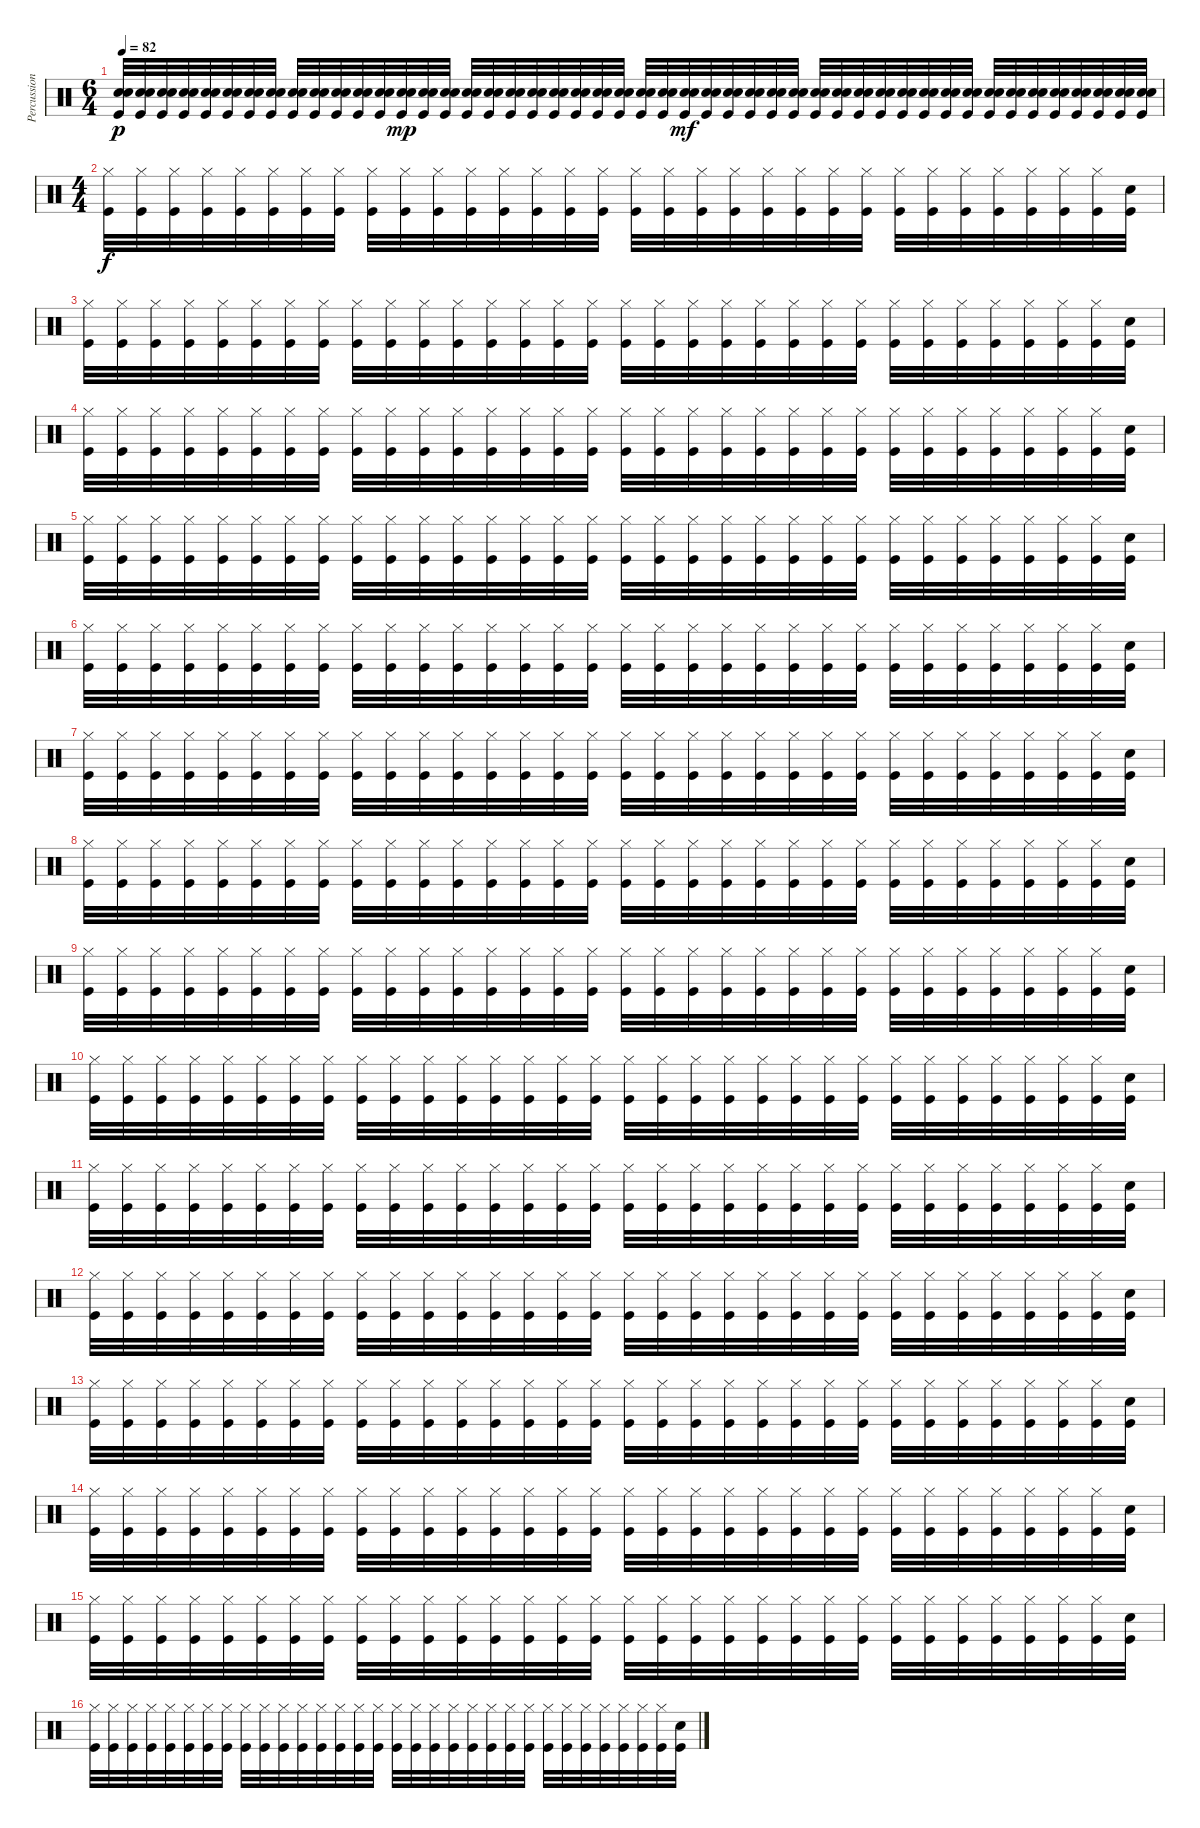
\track ("Percussion" "Percussion") {instrument percussion}
\staff {score}
\articulation defaults
\ts (6 4)
\tempo 82
\clef neutral
\ks c
("Electric Snare (hit)" "Snare (hit) 2" "Kick (hit)").32{dy p} ("Electric Snare (hit)" "Snare (hit) 2" "Kick (hit)").32 ("Electric Snare (hit)" "Snare (hit) 2" "Kick (hit)").32 ("Electric Snare (hit)" "Snare (hit) 2" "Kick (hit)").32 ("Electric Snare (hit)" "Snare (hit) 2" "Kick (hit)").32 ("Electric Snare (hit)" "Snare (hit) 2" "Kick (hit)").32 ("Electric Snare (hit)" "Snare (hit) 2" "Kick (hit)").32 ("Electric Snare (hit)" "Snare (hit) 2" "Kick (hit)").32 ("Electric Snare (hit)" "Snare (hit) 2" "Kick (hit)").32 ("Electric Snare (hit)" "Snare (hit) 2" "Kick (hit)").32 ("Electric Snare (hit)" "Snare (hit) 2" "Kick (hit)").32 ("Electric Snare (hit)" "Snare (hit) 2" "Kick (hit)").32 ("Electric Snare (hit)" "Snare (hit) 2" "Kick (hit)").32 ("Electric Snare (hit)" "Snare (hit) 2" "Kick (hit)").32{dy mp} ("Electric Snare (hit)" "Snare (hit) 2" "Kick (hit)").32 ("Electric Snare (hit)" "Snare (hit) 2" "Kick (hit)").32 ("Electric Snare (hit)" "Snare (hit) 2" "Kick (hit)").32 ("Electric Snare (hit)" "Snare (hit) 2" "Kick (hit)").32 ("Electric Snare (hit)" "Snare (hit) 2" "Kick (hit)").32 ("Electric Snare (hit)" "Snare (hit) 2" "Kick (hit)").32 ("Electric Snare (hit)" "Snare (hit) 2" "Kick (hit)").32 ("Electric Snare (hit)" "Snare (hit) 2" "Kick (hit)").32 ("Electric Snare (hit)" "Snare (hit) 2" "Kick (hit)").32 ("Electric Snare (hit)" "Snare (hit) 2" "Kick (hit)").32 ("Electric Snare (hit)" "Snare (hit) 2" "Kick (hit)").32 ("Electric Snare (hit)" "Snare (hit) 2" "Kick (hit)").32 ("Electric Snare (hit)" "Snare (hit) 2" "Kick (hit)").32{dy mf} ("Electric Snare (hit)" "Snare (hit) 2" "Kick (hit)").32 ("Electric Snare (hit)" "Snare (hit) 2" "Kick (hit)").32 ("Electric Snare (hit)" "Snare (hit) 2" "Kick (hit)").32 ("Electric Snare (hit)" "Snare (hit) 2" "Kick (hit)").32 ("Electric Snare (hit)" "Snare (hit) 2" "Kick (hit)").32 ("Electric Snare (hit)" "Snare (hit) 2" "Kick (hit)").32 ("Electric Snare (hit)" "Snare (hit) 2" "Kick (hit)").32 ("Electric Snare (hit)" "Snare (hit) 2" "Kick (hit)").32 ("Electric Snare (hit)" "Snare (hit) 2" "Kick (hit)").32 ("Electric Snare (hit)" "Snare (hit) 2" "Kick (hit)").32 ("Electric Snare (hit)" "Snare (hit) 2" "Kick (hit)").32 ("Electric Snare (hit)" "Snare (hit) 2" "Kick (hit)").32 ("Electric Snare (hit)" "Snare (hit) 2" "Kick (hit)").32 ("Electric Snare (hit)" "Snare (hit) 2" "Kick (hit)").32 ("Electric Snare (hit)" "Snare (hit) 2" "Kick (hit)").32 ("Electric Snare (hit)" "Snare (hit) 2" "Kick (hit)").32 ("Electric Snare (hit)" "Snare (hit) 2" "Kick (hit)").32 ("Electric Snare (hit)" "Snare (hit) 2" "Kick (hit)").32 ("Electric Snare (hit)" "Snare (hit) 2" "Kick (hit)").32 ("Electric Snare (hit)" "Snare (hit) 2" "Kick (hit)").32 ("Electric Snare (hit)" "Snare (hit) 2" "Kick (hit)").32 |
\ts (4 4)
("Hi-Hat (closed)" "Kick (hit)").32{dy f} ("Hi-Hat (closed)" "Kick (hit)").32 ("Hi-Hat (closed)" "Kick (hit)").32 ("Hi-Hat (closed)" "Kick (hit)").32 ("Hi-Hat (closed)" "Kick (hit)").32 ("Hi-Hat (closed)" "Kick (hit)").32 ("Hi-Hat (closed)" "Kick (hit)").32 ("Hi-Hat (closed)" "Kick (hit)").32 ("Hi-Hat (closed)" "Kick (hit)").32 ("Hi-Hat (closed)" "Kick (hit)").32 ("Hi-Hat (closed)" "Kick (hit)").32 ("Hi-Hat (closed)" "Kick (hit)").32 ("Hi-Hat (closed)" "Kick (hit)").32 ("Hi-Hat (closed)" "Kick (hit)").32 ("Hi-Hat (closed)" "Kick (hit)").32 ("Hi-Hat (closed)" "Kick (hit)").32 ("Hi-Hat (closed)" "Kick (hit)").32 ("Hi-Hat (closed)" "Kick (hit)").32 ("Hi-Hat (closed)" "Kick (hit)").32 ("Hi-Hat (closed)" "Kick (hit)").32 ("Hi-Hat (closed)" "Kick (hit)").32 ("Hi-Hat (closed)" "Kick (hit)").32 ("Hi-Hat (closed)" "Kick (hit)").32 ("Hi-Hat (closed)" "Kick (hit)").32 ("Hi-Hat (closed)" "Kick (hit)").32 ("Hi-Hat (closed)" "Kick (hit)").32 ("Hi-Hat (closed)" "Kick (hit)").32 ("Hi-Hat (closed)" "Kick (hit)").32 ("Hi-Hat (closed)" "Kick (hit)").32 ("Hi-Hat (closed)" "Kick (hit)").32 ("Hi-Hat (closed)" "Kick (hit)").32 ("Snare (hit)" "Kick (hit)").32 |
("Hi-Hat (closed)" "Kick (hit)").32 ("Hi-Hat (closed)" "Kick (hit)").32 ("Hi-Hat (closed)" "Kick (hit)").32 ("Hi-Hat (closed)" "Kick (hit)").32 ("Hi-Hat (closed)" "Kick (hit)").32 ("Hi-Hat (closed)" "Kick (hit)").32 ("Hi-Hat (closed)" "Kick (hit)").32 ("Hi-Hat (closed)" "Kick (hit)").32 ("Hi-Hat (closed)" "Kick (hit)").32 ("Hi-Hat (closed)" "Kick (hit)").32 ("Hi-Hat (closed)" "Kick (hit)").32 ("Hi-Hat (closed)" "Kick (hit)").32 ("Hi-Hat (closed)" "Kick (hit)").32 ("Hi-Hat (closed)" "Kick (hit)").32 ("Hi-Hat (closed)" "Kick (hit)").32 ("Hi-Hat (closed)" "Kick (hit)").32 ("Hi-Hat (closed)" "Kick (hit)").32 ("Hi-Hat (closed)" "Kick (hit)").32 ("Hi-Hat (closed)" "Kick (hit)").32 ("Hi-Hat (closed)" "Kick (hit)").32 ("Hi-Hat (closed)" "Kick (hit)").32 ("Hi-Hat (closed)" "Kick (hit)").32 ("Hi-Hat (closed)" "Kick (hit)").32 ("Hi-Hat (closed)" "Kick (hit)").32 ("Hi-Hat (closed)" "Kick (hit)").32 ("Hi-Hat (closed)" "Kick (hit)").32 ("Hi-Hat (closed)" "Kick (hit)").32 ("Hi-Hat (closed)" "Kick (hit)").32 ("Hi-Hat (closed)" "Kick (hit)").32 ("Hi-Hat (closed)" "Kick (hit)").32 ("Hi-Hat (closed)" "Kick (hit)").32 ("Snare (hit)" "Kick (hit)").32 |
("Hi-Hat (closed)" "Kick (hit)").32 ("Hi-Hat (closed)" "Kick (hit)").32 ("Hi-Hat (closed)" "Kick (hit)").32 ("Hi-Hat (closed)" "Kick (hit)").32 ("Hi-Hat (closed)" "Kick (hit)").32 ("Hi-Hat (closed)" "Kick (hit)").32 ("Hi-Hat (closed)" "Kick (hit)").32 ("Hi-Hat (closed)" "Kick (hit)").32 ("Hi-Hat (closed)" "Kick (hit)").32 ("Hi-Hat (closed)" "Kick (hit)").32 ("Hi-Hat (closed)" "Kick (hit)").32 ("Hi-Hat (closed)" "Kick (hit)").32 ("Hi-Hat (closed)" "Kick (hit)").32 ("Hi-Hat (closed)" "Kick (hit)").32 ("Hi-Hat (closed)" "Kick (hit)").32 ("Hi-Hat (closed)" "Kick (hit)").32 ("Hi-Hat (closed)" "Kick (hit)").32 ("Hi-Hat (closed)" "Kick (hit)").32 ("Hi-Hat (closed)" "Kick (hit)").32 ("Hi-Hat (closed)" "Kick (hit)").32 ("Hi-Hat (closed)" "Kick (hit)").32 ("Hi-Hat (closed)" "Kick (hit)").32 ("Hi-Hat (closed)" "Kick (hit)").32 ("Hi-Hat (closed)" "Kick (hit)").32 ("Hi-Hat (closed)" "Kick (hit)").32 ("Hi-Hat (closed)" "Kick (hit)").32 ("Hi-Hat (closed)" "Kick (hit)").32 ("Hi-Hat (closed)" "Kick (hit)").32 ("Hi-Hat (closed)" "Kick (hit)").32 ("Hi-Hat (closed)" "Kick (hit)").32 ("Hi-Hat (closed)" "Kick (hit)").32 ("Snare (hit)" "Kick (hit)").32 |
("Hi-Hat (closed)" "Kick (hit)").32 ("Hi-Hat (closed)" "Kick (hit)").32 ("Hi-Hat (closed)" "Kick (hit)").32 ("Hi-Hat (closed)" "Kick (hit)").32 ("Hi-Hat (closed)" "Kick (hit)").32 ("Hi-Hat (closed)" "Kick (hit)").32 ("Hi-Hat (closed)" "Kick (hit)").32 ("Hi-Hat (closed)" "Kick (hit)").32 ("Hi-Hat (closed)" "Kick (hit)").32 ("Hi-Hat (closed)" "Kick (hit)").32 ("Hi-Hat (closed)" "Kick (hit)").32 ("Hi-Hat (closed)" "Kick (hit)").32 ("Hi-Hat (closed)" "Kick (hit)").32 ("Hi-Hat (closed)" "Kick (hit)").32 ("Hi-Hat (closed)" "Kick (hit)").32 ("Hi-Hat (closed)" "Kick (hit)").32 ("Hi-Hat (closed)" "Kick (hit)").32 ("Hi-Hat (closed)" "Kick (hit)").32 ("Hi-Hat (closed)" "Kick (hit)").32 ("Hi-Hat (closed)" "Kick (hit)").32 ("Hi-Hat (closed)" "Kick (hit)").32 ("Hi-Hat (closed)" "Kick (hit)").32 ("Hi-Hat (closed)" "Kick (hit)").32 ("Hi-Hat (closed)" "Kick (hit)").32 ("Hi-Hat (closed)" "Kick (hit)").32 ("Hi-Hat (closed)" "Kick (hit)").32 ("Hi-Hat (closed)" "Kick (hit)").32 ("Hi-Hat (closed)" "Kick (hit)").32 ("Hi-Hat (closed)" "Kick (hit)").32 ("Hi-Hat (closed)" "Kick (hit)").32 ("Hi-Hat (closed)" "Kick (hit)").32 ("Snare (hit)" "Kick (hit)").32 |
("Hi-Hat (closed)" "Kick (hit)").32 ("Hi-Hat (closed)" "Kick (hit)").32 ("Hi-Hat (closed)" "Kick (hit)").32 ("Hi-Hat (closed)" "Kick (hit)").32 ("Hi-Hat (closed)" "Kick (hit)").32 ("Hi-Hat (closed)" "Kick (hit)").32 ("Hi-Hat (closed)" "Kick (hit)").32 ("Hi-Hat (closed)" "Kick (hit)").32 ("Hi-Hat (closed)" "Kick (hit)").32 ("Hi-Hat (closed)" "Kick (hit)").32 ("Hi-Hat (closed)" "Kick (hit)").32 ("Hi-Hat (closed)" "Kick (hit)").32 ("Hi-Hat (closed)" "Kick (hit)").32 ("Hi-Hat (closed)" "Kick (hit)").32 ("Hi-Hat (closed)" "Kick (hit)").32 ("Hi-Hat (closed)" "Kick (hit)").32 ("Hi-Hat (closed)" "Kick (hit)").32 ("Hi-Hat (closed)" "Kick (hit)").32 ("Hi-Hat (closed)" "Kick (hit)").32 ("Hi-Hat (closed)" "Kick (hit)").32 ("Hi-Hat (closed)" "Kick (hit)").32 ("Hi-Hat (closed)" "Kick (hit)").32 ("Hi-Hat (closed)" "Kick (hit)").32 ("Hi-Hat (closed)" "Kick (hit)").32 ("Hi-Hat (closed)" "Kick (hit)").32 ("Hi-Hat (closed)" "Kick (hit)").32 ("Hi-Hat (closed)" "Kick (hit)").32 ("Hi-Hat (closed)" "Kick (hit)").32 ("Hi-Hat (closed)" "Kick (hit)").32 ("Hi-Hat (closed)" "Kick (hit)").32 ("Hi-Hat (closed)" "Kick (hit)").32 ("Snare (hit)" "Kick (hit)").32 |
("Hi-Hat (closed)" "Kick (hit)").32 ("Hi-Hat (closed)" "Kick (hit)").32 ("Hi-Hat (closed)" "Kick (hit)").32 ("Hi-Hat (closed)" "Kick (hit)").32 ("Hi-Hat (closed)" "Kick (hit)").32 ("Hi-Hat (closed)" "Kick (hit)").32 ("Hi-Hat (closed)" "Kick (hit)").32 ("Hi-Hat (closed)" "Kick (hit)").32 ("Hi-Hat (closed)" "Kick (hit)").32 ("Hi-Hat (closed)" "Kick (hit)").32 ("Hi-Hat (closed)" "Kick (hit)").32 ("Hi-Hat (closed)" "Kick (hit)").32 ("Hi-Hat (closed)" "Kick (hit)").32 ("Hi-Hat (closed)" "Kick (hit)").32 ("Hi-Hat (closed)" "Kick (hit)").32 ("Hi-Hat (closed)" "Kick (hit)").32 ("Hi-Hat (closed)" "Kick (hit)").32 ("Hi-Hat (closed)" "Kick (hit)").32 ("Hi-Hat (closed)" "Kick (hit)").32 ("Hi-Hat (closed)" "Kick (hit)").32 ("Hi-Hat (closed)" "Kick (hit)").32 ("Hi-Hat (closed)" "Kick (hit)").32 ("Hi-Hat (closed)" "Kick (hit)").32 ("Hi-Hat (closed)" "Kick (hit)").32 ("Hi-Hat (closed)" "Kick (hit)").32 ("Hi-Hat (closed)" "Kick (hit)").32 ("Hi-Hat (closed)" "Kick (hit)").32 ("Hi-Hat (closed)" "Kick (hit)").32 ("Hi-Hat (closed)" "Kick (hit)").32 ("Hi-Hat (closed)" "Kick (hit)").32 ("Hi-Hat (closed)" "Kick (hit)").32 ("Snare (hit)" "Kick (hit)").32 |
("Hi-Hat (closed)" "Kick (hit)").32 ("Hi-Hat (closed)" "Kick (hit)").32 ("Hi-Hat (closed)" "Kick (hit)").32 ("Hi-Hat (closed)" "Kick (hit)").32 ("Hi-Hat (closed)" "Kick (hit)").32 ("Hi-Hat (closed)" "Kick (hit)").32 ("Hi-Hat (closed)" "Kick (hit)").32 ("Hi-Hat (closed)" "Kick (hit)").32 ("Hi-Hat (closed)" "Kick (hit)").32 ("Hi-Hat (closed)" "Kick (hit)").32 ("Hi-Hat (closed)" "Kick (hit)").32 ("Hi-Hat (closed)" "Kick (hit)").32 ("Hi-Hat (closed)" "Kick (hit)").32 ("Hi-Hat (closed)" "Kick (hit)").32 ("Hi-Hat (closed)" "Kick (hit)").32 ("Hi-Hat (closed)" "Kick (hit)").32 ("Hi-Hat (closed)" "Kick (hit)").32 ("Hi-Hat (closed)" "Kick (hit)").32 ("Hi-Hat (closed)" "Kick (hit)").32 ("Hi-Hat (closed)" "Kick (hit)").32 ("Hi-Hat (closed)" "Kick (hit)").32 ("Hi-Hat (closed)" "Kick (hit)").32 ("Hi-Hat (closed)" "Kick (hit)").32 ("Hi-Hat (closed)" "Kick (hit)").32 ("Hi-Hat (closed)" "Kick (hit)").32 ("Hi-Hat (closed)" "Kick (hit)").32 ("Hi-Hat (closed)" "Kick (hit)").32 ("Hi-Hat (closed)" "Kick (hit)").32 ("Hi-Hat (closed)" "Kick (hit)").32 ("Hi-Hat (closed)" "Kick (hit)").32 ("Hi-Hat (closed)" "Kick (hit)").32 ("Snare (hit)" "Kick (hit)").32 |
("Hi-Hat (closed)" "Kick (hit)").32 ("Hi-Hat (closed)" "Kick (hit)").32 ("Hi-Hat (closed)" "Kick (hit)").32 ("Hi-Hat (closed)" "Kick (hit)").32 ("Hi-Hat (closed)" "Kick (hit)").32 ("Hi-Hat (closed)" "Kick (hit)").32 ("Hi-Hat (closed)" "Kick (hit)").32 ("Hi-Hat (closed)" "Kick (hit)").32 ("Hi-Hat (closed)" "Kick (hit)").32 ("Hi-Hat (closed)" "Kick (hit)").32 ("Hi-Hat (closed)" "Kick (hit)").32 ("Hi-Hat (closed)" "Kick (hit)").32 ("Hi-Hat (closed)" "Kick (hit)").32 ("Hi-Hat (closed)" "Kick (hit)").32 ("Hi-Hat (closed)" "Kick (hit)").32 ("Hi-Hat (closed)" "Kick (hit)").32 ("Hi-Hat (closed)" "Kick (hit)").32 ("Hi-Hat (closed)" "Kick (hit)").32 ("Hi-Hat (closed)" "Kick (hit)").32 ("Hi-Hat (closed)" "Kick (hit)").32 ("Hi-Hat (closed)" "Kick (hit)").32 ("Hi-Hat (closed)" "Kick (hit)").32 ("Hi-Hat (closed)" "Kick (hit)").32 ("Hi-Hat (closed)" "Kick (hit)").32 ("Hi-Hat (closed)" "Kick (hit)").32 ("Hi-Hat (closed)" "Kick (hit)").32 ("Hi-Hat (closed)" "Kick (hit)").32 ("Hi-Hat (closed)" "Kick (hit)").32 ("Hi-Hat (closed)" "Kick (hit)").32 ("Hi-Hat (closed)" "Kick (hit)").32 ("Hi-Hat (closed)" "Kick (hit)").32 ("Snare (hit)" "Kick (hit)").32 |
("Hi-Hat (closed)" "Kick (hit)").32 ("Hi-Hat (closed)" "Kick (hit)").32 ("Hi-Hat (closed)" "Kick (hit)").32 ("Hi-Hat (closed)" "Kick (hit)").32 ("Hi-Hat (closed)" "Kick (hit)").32 ("Hi-Hat (closed)" "Kick (hit)").32 ("Hi-Hat (closed)" "Kick (hit)").32 ("Hi-Hat (closed)" "Kick (hit)").32 ("Hi-Hat (closed)" "Kick (hit)").32 ("Hi-Hat (closed)" "Kick (hit)").32 ("Hi-Hat (closed)" "Kick (hit)").32 ("Hi-Hat (closed)" "Kick (hit)").32 ("Hi-Hat (closed)" "Kick (hit)").32 ("Hi-Hat (closed)" "Kick (hit)").32 ("Hi-Hat (closed)" "Kick (hit)").32 ("Hi-Hat (closed)" "Kick (hit)").32 ("Hi-Hat (closed)" "Kick (hit)").32 ("Hi-Hat (closed)" "Kick (hit)").32 ("Hi-Hat (closed)" "Kick (hit)").32 ("Hi-Hat (closed)" "Kick (hit)").32 ("Hi-Hat (closed)" "Kick (hit)").32 ("Hi-Hat (closed)" "Kick (hit)").32 ("Hi-Hat (closed)" "Kick (hit)").32 ("Hi-Hat (closed)" "Kick (hit)").32 ("Hi-Hat (closed)" "Kick (hit)").32 ("Hi-Hat (closed)" "Kick (hit)").32 ("Hi-Hat (closed)" "Kick (hit)").32 ("Hi-Hat (closed)" "Kick (hit)").32 ("Hi-Hat (closed)" "Kick (hit)").32 ("Hi-Hat (closed)" "Kick (hit)").32 ("Hi-Hat (closed)" "Kick (hit)").32 ("Snare (hit)" "Kick (hit)").32 |
("Hi-Hat (closed)" "Kick (hit)").32 ("Hi-Hat (closed)" "Kick (hit)").32 ("Hi-Hat (closed)" "Kick (hit)").32 ("Hi-Hat (closed)" "Kick (hit)").32 ("Hi-Hat (closed)" "Kick (hit)").32 ("Hi-Hat (closed)" "Kick (hit)").32 ("Hi-Hat (closed)" "Kick (hit)").32 ("Hi-Hat (closed)" "Kick (hit)").32 ("Hi-Hat (closed)" "Kick (hit)").32 ("Hi-Hat (closed)" "Kick (hit)").32 ("Hi-Hat (closed)" "Kick (hit)").32 ("Hi-Hat (closed)" "Kick (hit)").32 ("Hi-Hat (closed)" "Kick (hit)").32 ("Hi-Hat (closed)" "Kick (hit)").32 ("Hi-Hat (closed)" "Kick (hit)").32 ("Hi-Hat (closed)" "Kick (hit)").32 ("Hi-Hat (closed)" "Kick (hit)").32 ("Hi-Hat (closed)" "Kick (hit)").32 ("Hi-Hat (closed)" "Kick (hit)").32 ("Hi-Hat (closed)" "Kick (hit)").32 ("Hi-Hat (closed)" "Kick (hit)").32 ("Hi-Hat (closed)" "Kick (hit)").32 ("Hi-Hat (closed)" "Kick (hit)").32 ("Hi-Hat (closed)" "Kick (hit)").32 ("Hi-Hat (closed)" "Kick (hit)").32 ("Hi-Hat (closed)" "Kick (hit)").32 ("Hi-Hat (closed)" "Kick (hit)").32 ("Hi-Hat (closed)" "Kick (hit)").32 ("Hi-Hat (closed)" "Kick (hit)").32 ("Hi-Hat (closed)" "Kick (hit)").32 ("Hi-Hat (closed)" "Kick (hit)").32 ("Snare (hit)" "Kick (hit)").32 |
("Hi-Hat (closed)" "Kick (hit)").32 ("Hi-Hat (closed)" "Kick (hit)").32 ("Hi-Hat (closed)" "Kick (hit)").32 ("Hi-Hat (closed)" "Kick (hit)").32 ("Hi-Hat (closed)" "Kick (hit)").32 ("Hi-Hat (closed)" "Kick (hit)").32 ("Hi-Hat (closed)" "Kick (hit)").32 ("Hi-Hat (closed)" "Kick (hit)").32 ("Hi-Hat (closed)" "Kick (hit)").32 ("Hi-Hat (closed)" "Kick (hit)").32 ("Hi-Hat (closed)" "Kick (hit)").32 ("Hi-Hat (closed)" "Kick (hit)").32 ("Hi-Hat (closed)" "Kick (hit)").32 ("Hi-Hat (closed)" "Kick (hit)").32 ("Hi-Hat (closed)" "Kick (hit)").32 ("Hi-Hat (closed)" "Kick (hit)").32 ("Hi-Hat (closed)" "Kick (hit)").32 ("Hi-Hat (closed)" "Kick (hit)").32 ("Hi-Hat (closed)" "Kick (hit)").32 ("Hi-Hat (closed)" "Kick (hit)").32 ("Hi-Hat (closed)" "Kick (hit)").32 ("Hi-Hat (closed)" "Kick (hit)").32 ("Hi-Hat (closed)" "Kick (hit)").32 ("Hi-Hat (closed)" "Kick (hit)").32 ("Hi-Hat (closed)" "Kick (hit)").32 ("Hi-Hat (closed)" "Kick (hit)").32 ("Hi-Hat (closed)" "Kick (hit)").32 ("Hi-Hat (closed)" "Kick (hit)").32 ("Hi-Hat (closed)" "Kick (hit)").32 ("Hi-Hat (closed)" "Kick (hit)").32 ("Hi-Hat (closed)" "Kick (hit)").32 ("Snare (hit)" "Kick (hit)").32 |
("Hi-Hat (closed)" "Kick (hit)").32 ("Hi-Hat (closed)" "Kick (hit)").32 ("Hi-Hat (closed)" "Kick (hit)").32 ("Hi-Hat (closed)" "Kick (hit)").32 ("Hi-Hat (closed)" "Kick (hit)").32 ("Hi-Hat (closed)" "Kick (hit)").32 ("Hi-Hat (closed)" "Kick (hit)").32 ("Hi-Hat (closed)" "Kick (hit)").32 ("Hi-Hat (closed)" "Kick (hit)").32 ("Hi-Hat (closed)" "Kick (hit)").32 ("Hi-Hat (closed)" "Kick (hit)").32 ("Hi-Hat (closed)" "Kick (hit)").32 ("Hi-Hat (closed)" "Kick (hit)").32 ("Hi-Hat (closed)" "Kick (hit)").32 ("Hi-Hat (closed)" "Kick (hit)").32 ("Hi-Hat (closed)" "Kick (hit)").32 ("Hi-Hat (closed)" "Kick (hit)").32 ("Hi-Hat (closed)" "Kick (hit)").32 ("Hi-Hat (closed)" "Kick (hit)").32 ("Hi-Hat (closed)" "Kick (hit)").32 ("Hi-Hat (closed)" "Kick (hit)").32 ("Hi-Hat (closed)" "Kick (hit)").32 ("Hi-Hat (closed)" "Kick (hit)").32 ("Hi-Hat (closed)" "Kick (hit)").32 ("Hi-Hat (closed)" "Kick (hit)").32 ("Hi-Hat (closed)" "Kick (hit)").32 ("Hi-Hat (closed)" "Kick (hit)").32 ("Hi-Hat (closed)" "Kick (hit)").32 ("Hi-Hat (closed)" "Kick (hit)").32 ("Hi-Hat (closed)" "Kick (hit)").32 ("Hi-Hat (closed)" "Kick (hit)").32 ("Snare (hit)" "Kick (hit)").32 |
("Hi-Hat (closed)" "Kick (hit)").32 ("Hi-Hat (closed)" "Kick (hit)").32 ("Hi-Hat (closed)" "Kick (hit)").32 ("Hi-Hat (closed)" "Kick (hit)").32 ("Hi-Hat (closed)" "Kick (hit)").32 ("Hi-Hat (closed)" "Kick (hit)").32 ("Hi-Hat (closed)" "Kick (hit)").32 ("Hi-Hat (closed)" "Kick (hit)").32 ("Hi-Hat (closed)" "Kick (hit)").32 ("Hi-Hat (closed)" "Kick (hit)").32 ("Hi-Hat (closed)" "Kick (hit)").32 ("Hi-Hat (closed)" "Kick (hit)").32 ("Hi-Hat (closed)" "Kick (hit)").32 ("Hi-Hat (closed)" "Kick (hit)").32 ("Hi-Hat (closed)" "Kick (hit)").32 ("Hi-Hat (closed)" "Kick (hit)").32 ("Hi-Hat (closed)" "Kick (hit)").32 ("Hi-Hat (closed)" "Kick (hit)").32 ("Hi-Hat (closed)" "Kick (hit)").32 ("Hi-Hat (closed)" "Kick (hit)").32 ("Hi-Hat (closed)" "Kick (hit)").32 ("Hi-Hat (closed)" "Kick (hit)").32 ("Hi-Hat (closed)" "Kick (hit)").32 ("Hi-Hat (closed)" "Kick (hit)").32 ("Hi-Hat (closed)" "Kick (hit)").32 ("Hi-Hat (closed)" "Kick (hit)").32 ("Hi-Hat (closed)" "Kick (hit)").32 ("Hi-Hat (closed)" "Kick (hit)").32 ("Hi-Hat (closed)" "Kick (hit)").32 ("Hi-Hat (closed)" "Kick (hit)").32 ("Hi-Hat (closed)" "Kick (hit)").32 ("Snare (hit)" "Kick (hit)").32 |
("Hi-Hat (closed)" "Kick (hit)").32 ("Hi-Hat (closed)" "Kick (hit)").32 ("Hi-Hat (closed)" "Kick (hit)").32 ("Hi-Hat (closed)" "Kick (hit)").32 ("Hi-Hat (closed)" "Kick (hit)").32 ("Hi-Hat (closed)" "Kick (hit)").32 ("Hi-Hat (closed)" "Kick (hit)").32 ("Hi-Hat (closed)" "Kick (hit)").32 ("Hi-Hat (closed)" "Kick (hit)").32 ("Hi-Hat (closed)" "Kick (hit)").32 ("Hi-Hat (closed)" "Kick (hit)").32 ("Hi-Hat (closed)" "Kick (hit)").32 ("Hi-Hat (closed)" "Kick (hit)").32 ("Hi-Hat (closed)" "Kick (hit)").32 ("Hi-Hat (closed)" "Kick (hit)").32 ("Hi-Hat (closed)" "Kick (hit)").32 ("Hi-Hat (closed)" "Kick (hit)").32 ("Hi-Hat (closed)" "Kick (hit)").32 ("Hi-Hat (closed)" "Kick (hit)").32 ("Hi-Hat (closed)" "Kick (hit)").32 ("Hi-Hat (closed)" "Kick (hit)").32 ("Hi-Hat (closed)" "Kick (hit)").32 ("Hi-Hat (closed)" "Kick (hit)").32 ("Hi-Hat (closed)" "Kick (hit)").32 ("Hi-Hat (closed)" "Kick (hit)").32 ("Hi-Hat (closed)" "Kick (hit)").32 ("Hi-Hat (closed)" "Kick (hit)").32 ("Hi-Hat (closed)" "Kick (hit)").32 ("Hi-Hat (closed)" "Kick (hit)").32 ("Hi-Hat (closed)" "Kick (hit)").32 ("Hi-Hat (closed)" "Kick (hit)").32 ("Snare (hit)" "Kick (hit)").32 |
("Hi-Hat (closed)" "Kick (hit)").32 ("Hi-Hat (closed)" "Kick (hit)").32 ("Hi-Hat (closed)" "Kick (hit)").32 ("Hi-Hat (closed)" "Kick (hit)").32 ("Hi-Hat (closed)" "Kick (hit)").32 ("Hi-Hat (closed)" "Kick (hit)").32 ("Hi-Hat (closed)" "Kick (hit)").32 ("Hi-Hat (closed)" "Kick (hit)").32 ("Hi-Hat (closed)" "Kick (hit)").32 ("Hi-Hat (closed)" "Kick (hit)").32 ("Hi-Hat (closed)" "Kick (hit)").32 ("Hi-Hat (closed)" "Kick (hit)").32 ("Hi-Hat (closed)" "Kick (hit)").32 ("Hi-Hat (closed)" "Kick (hit)").32 ("Hi-Hat (closed)" "Kick (hit)").32 ("Hi-Hat (closed)" "Kick (hit)").32 ("Hi-Hat (closed)" "Kick (hit)").32 ("Hi-Hat (closed)" "Kick (hit)").32 ("Hi-Hat (closed)" "Kick (hit)").32 ("Hi-Hat (closed)" "Kick (hit)").32 ("Hi-Hat (closed)" "Kick (hit)").32 ("Hi-Hat (closed)" "Kick (hit)").32 ("Hi-Hat (closed)" "Kick (hit)").32 ("Hi-Hat (closed)" "Kick (hit)").32 ("Hi-Hat (closed)" "Kick (hit)").32 ("Hi-Hat (closed)" "Kick (hit)").32 ("Hi-Hat (closed)" "Kick (hit)").32 ("Hi-Hat (closed)" "Kick (hit)").32 ("Hi-Hat (closed)" "Kick (hit)").32 ("Hi-Hat (closed)" "Kick (hit)").32 ("Hi-Hat (closed)" "Kick (hit)").32 ("Snare (hit)" "Kick (hit)").32
